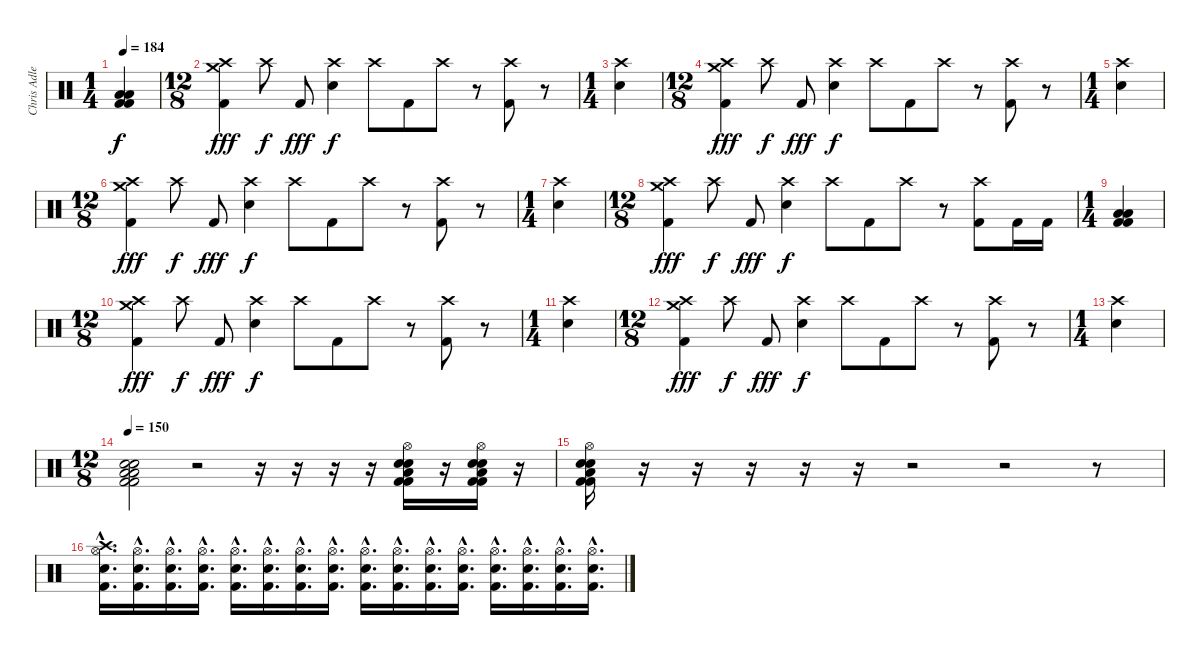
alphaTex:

\track ("Chris Adler" "Chris Adle") {instrument percussion}
\staff {score}
\articulation defaults
\ts (1 4)
\tempo 184
\clef neutral
\ks c
("Low Floor Tom (hit)" "Low Floor Tom (hit)" "Kick (hit) 2" "Kick (hit) 2").4{dy f} |
\ts (12 8)
("Crash high (hit)" "Crash medium (hit)" "Kick (hit) 2").4{dy fff} "Crash high (hit)".8{dy f} "Kick (hit) 2".8{dy fff} ("Crash high (hit)" "Electric Snare (hit)").4{dy f} "Crash high (hit)".8 "Kick (hit) 2".8 "Crash high (hit)".8 r.8 ("Crash high (hit)" "Kick (hit) 2").8 r.8 |
\ts (1 4)
("Crash high (hit)" "Electric Snare (hit)").4 |
\ts (12 8)
("Crash high (hit)" "Crash medium (hit)" "Kick (hit) 2").4{dy fff} "Crash high (hit)".8{dy f} "Kick (hit) 2".8{dy fff} ("Crash high (hit)" "Electric Snare (hit)").4{dy f} "Crash high (hit)".8 "Kick (hit) 2".8 "Crash high (hit)".8 r.8 ("Crash high (hit)" "Kick (hit) 2").8 r.8 |
\ts (1 4)
("Crash high (hit)" "Electric Snare (hit)").4 |
\ts (12 8)
("Crash high (hit)" "Crash medium (hit)" "Kick (hit) 2").4{dy fff} "Crash high (hit)".8{dy f} "Kick (hit) 2".8{dy fff} ("Crash high (hit)" "Electric Snare (hit)").4{dy f} "Crash high (hit)".8 "Kick (hit) 2".8 "Crash high (hit)".8 r.8 ("Crash high (hit)" "Kick (hit) 2").8 r.8 |
\ts (1 4)
("Crash high (hit)" "Electric Snare (hit)").4 |
\ts (12 8)
("Crash high (hit)" "Crash medium (hit)" "Kick (hit) 2").4{dy fff} "Crash high (hit)".8{dy f} "Kick (hit) 2".8{dy fff} ("Crash high (hit)" "Electric Snare (hit)").4{dy f} "Crash high (hit)".8 "Kick (hit) 2".8 "Crash high (hit)".8 r.8 ("Crash high (hit)" "Kick (hit) 2").8 "Kick (hit) 2".16 "Kick (hit) 2".16 |
\ts (1 4)
("Low Floor Tom (hit)" "Low Floor Tom (hit)" "Kick (hit) 2" "Kick (hit) 2").4 |
\ts (12 8)
("Crash high (hit)" "Crash medium (hit)" "Kick (hit) 2").4{dy fff} "Crash high (hit)".8{dy f} "Kick (hit) 2".8{dy fff} ("Crash high (hit)" "Electric Snare (hit)").4{dy f} "Crash high (hit)".8 "Kick (hit) 2".8 "Crash high (hit)".8 r.8 ("Crash high (hit)" "Kick (hit) 2").8 r.8 |
\ts (1 4)
("Crash high (hit)" "Electric Snare (hit)").4 |
\ts (12 8)
("Crash high (hit)" "Crash medium (hit)" "Kick (hit) 2").4{dy fff} "Crash high (hit)".8{dy f} "Kick (hit) 2".8{dy fff} ("Crash high (hit)" "Electric Snare (hit)").4{dy f} "Crash high (hit)".8 "Kick (hit) 2".8 "Crash high (hit)".8 r.8 ("Crash high (hit)" "Kick (hit) 2").8 r.8 |
\ts (1 4)
("Crash high (hit)" "Electric Snare (hit)").4 |
\ts (12 8)
\tempo 150
("Electric Snare (hit)" "Electric Snare (hit)" "Low Floor Tom (hit)" "Low Floor Tom (hit)" "Kick (hit) 2" "Kick (hit) 2").2 r.2 r.16 r.16 r.16 r.16 ("Hi-Hat (open)" "Electric Snare (hit)" "Electric Snare (hit)" "Low Floor Tom (hit)" "Kick (hit) 2" "Kick (hit) 2").16 r.16 ("Hi-Hat (open)" "Electric Snare (hit)" "Electric Snare (hit)" "Low Floor Tom (hit)" "Kick (hit) 2" "Kick (hit) 2").16 r.16 |
("Hi-Hat (open)" "Electric Snare (hit)" "Electric Snare (hit)" "Low Floor Tom (hit)" "Kick (hit) 2" "Kick (hit) 2").16 r.16 r.16{volume 0} r.16 r.16 r.16 r.2 r.2 r.8 |
("Crash high (hit)"{hac} "Hi-Hat (open)"{hac} "Electric Snare (hit)"{hac} "Kick (hit) 2"{hac}).16{d volume 16} ("Hi-Hat (open)"{hac} "Electric Snare (hit)"{hac} "Kick (hit) 2"{hac}).16{d} ("Hi-Hat (open)"{hac} "Electric Snare (hit)"{hac} "Kick (hit) 2"{hac}).16{d} ("Hi-Hat (open)"{hac} "Electric Snare (hit)"{hac} "Kick (hit) 2"{hac}).16{d} ("Hi-Hat (open)"{hac} "Electric Snare (hit)"{hac} "Kick (hit) 2"{hac}).16{d} ("Hi-Hat (open)"{hac} "Electric Snare (hit)"{hac} "Kick (hit) 2"{hac}).16{d} ("Hi-Hat (open)"{hac} "Electric Snare (hit)"{hac} "Kick (hit) 2"{hac}).16{d} ("Hi-Hat (open)"{hac} "Electric Snare (hit)"{hac} "Kick (hit) 2"{hac}).16{d} ("Hi-Hat (open)"{hac} "Electric Snare (hit)"{hac} "Kick (hit) 2"{hac}).16{d} ("Hi-Hat (open)"{hac} "Electric Snare (hit)"{hac} "Kick (hit) 2"{hac}).16{d} ("Hi-Hat (open)"{hac} "Electric Snare (hit)"{hac} "Kick (hit) 2"{hac}).16{d} ("Hi-Hat (open)"{hac} "Electric Snare (hit)"{hac} "Kick (hit) 2"{hac}).16{d} ("Hi-Hat (open)"{hac} "Electric Snare (hit)"{hac} "Kick (hit) 2"{hac}).16{d} ("Hi-Hat (open)"{hac} "Electric Snare (hit)"{hac} "Kick (hit) 2"{hac}).16{d} ("Hi-Hat (open)"{hac} "Electric Snare (hit)"{hac} "Kick (hit) 2"{hac}).16{d} ("Hi-Hat (open)"{hac} "Electric Snare (hit)"{hac} "Kick (hit) 2"{hac}).16{d}
